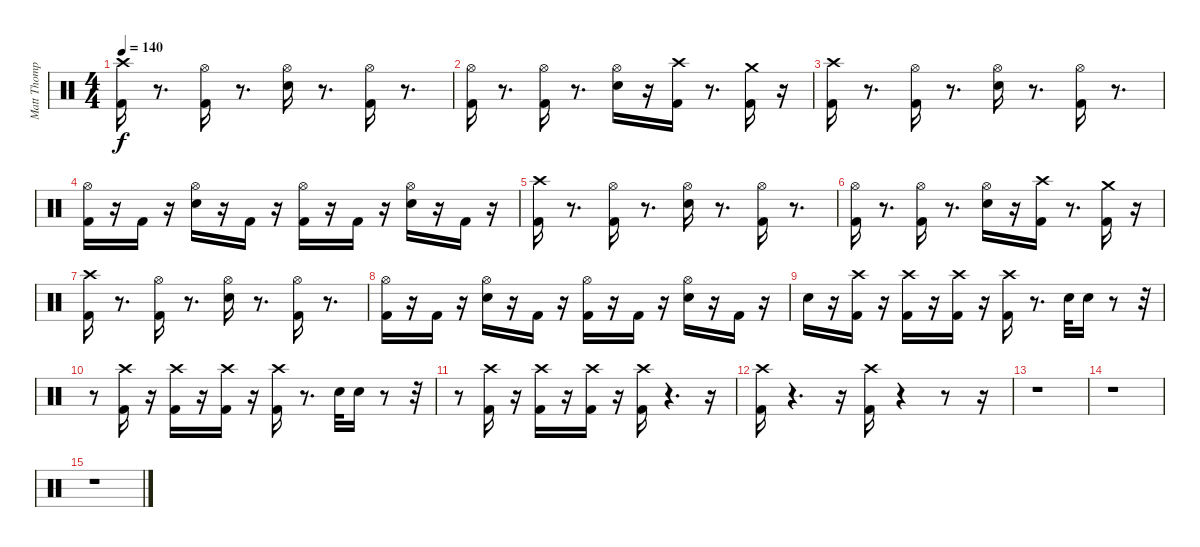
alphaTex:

\track ("Matt Thompson" "Matt Thomp") {instrument percussion}
\staff {score}
\articulation defaults
\ts (4 4)
\tempo 140
\clef neutral
\ks c
("Crash high (hit)" "Kick (hit) 2").16{dy f} r.8{d} ("Hi-Hat (open)" "Kick (hit) 2").16 r.8{d} ("Hi-Hat (open)" "Snare (hit) 2").16 r.8{d} ("Hi-Hat (open)" "Kick (hit) 2").16 r.8{d} |
("Hi-Hat (open)" "Kick (hit) 2").16 r.8{d} ("Hi-Hat (open)" "Kick (hit) 2").16 r.8{d} ("Hi-Hat (open)" "Snare (hit) 2").16 r.16 ("Crash high (hit)" "Kick (hit) 2").16 r.8{d} ("Crash medium (hit)" "Kick (hit) 2").16 r.16 |
("Crash high (hit)" "Kick (hit) 2").16 r.8{d} ("Hi-Hat (open)" "Kick (hit) 2").16 r.8{d} ("Hi-Hat (open)" "Snare (hit) 2").16 r.8{d} ("Hi-Hat (open)" "Kick (hit) 2").16 r.8{d} |
("Hi-Hat (open)" "Kick (hit) 2").16 r.16 "Kick (hit) 2".16 r.16 ("Hi-Hat (open)" "Snare (hit) 2").16 r.16 "Kick (hit) 2".16 r.16 ("Hi-Hat (open)" "Kick (hit) 2").16 r.16 "Kick (hit) 2".16 r.16 ("Hi-Hat (open)" "Snare (hit) 2").16 r.16 "Kick (hit) 2".16 r.16 |
("Crash high (hit)" "Kick (hit) 2").16 r.8{d} ("Hi-Hat (open)" "Kick (hit) 2").16 r.8{d} ("Hi-Hat (open)" "Snare (hit) 2").16 r.8{d} ("Hi-Hat (open)" "Kick (hit) 2").16 r.8{d} |
("Hi-Hat (open)" "Kick (hit) 2").16 r.8{d} ("Hi-Hat (open)" "Kick (hit) 2").16 r.8{d} ("Hi-Hat (open)" "Snare (hit) 2").16 r.16 ("Crash high (hit)" "Kick (hit) 2").16 r.8{d} ("Crash medium (hit)" "Kick (hit) 2").16 r.16 |
("Crash high (hit)" "Kick (hit) 2").16 r.8{d} ("Hi-Hat (open)" "Kick (hit) 2").16 r.8{d} ("Hi-Hat (open)" "Snare (hit) 2").16 r.8{d} ("Hi-Hat (open)" "Kick (hit) 2").16 r.8{d} |
("Hi-Hat (open)" "Kick (hit) 2").16 r.16 "Kick (hit) 2".16 r.16 ("Hi-Hat (open)" "Snare (hit) 2").16 r.16 "Kick (hit) 2".16 r.16 ("Hi-Hat (open)" "Kick (hit) 2").16 r.16 "Kick (hit) 2".16 r.16 ("Hi-Hat (open)" "Snare (hit) 2").16 r.16 "Kick (hit) 2".16 r.16 |
"Snare (hit) 2".16 r.16 ("Crash high (hit)" "Kick (hit) 2").16 r.16 ("Crash high (hit)" "Kick (hit) 2").16 r.16 ("Crash high (hit)" "Kick (hit) 2").16 r.16 ("Crash high (hit)" "Kick (hit) 2").16 r.8{d} "Snare (hit) 2".32 "Snare (hit) 2".16 r.8 r.32 |
r.8 ("Crash high (hit)" "Kick (hit) 2").16 r.16 ("Crash high (hit)" "Kick (hit) 2").16 r.16 ("Crash high (hit)" "Kick (hit) 2").16 r.16 ("Crash high (hit)" "Kick (hit) 2").16 r.8{d} "Snare (hit) 2".32 "Snare (hit) 2".16 r.8 r.32 |
r.8 ("Crash high (hit)" "Kick (hit) 2").16 r.16 ("Crash high (hit)" "Kick (hit) 2").16 r.16 ("Crash high (hit)" "Kick (hit) 2").16 r.16 ("Crash high (hit)" "Kick (hit) 2").16 r.4{d} r.16 |
("Crash high (hit)" "Kick (hit) 2").16 r.4{d} r.16 ("Crash high (hit)" "Kick (hit) 2").16 r.4 r.8 r.16 |
r.1 |
r.1 |
r.1
